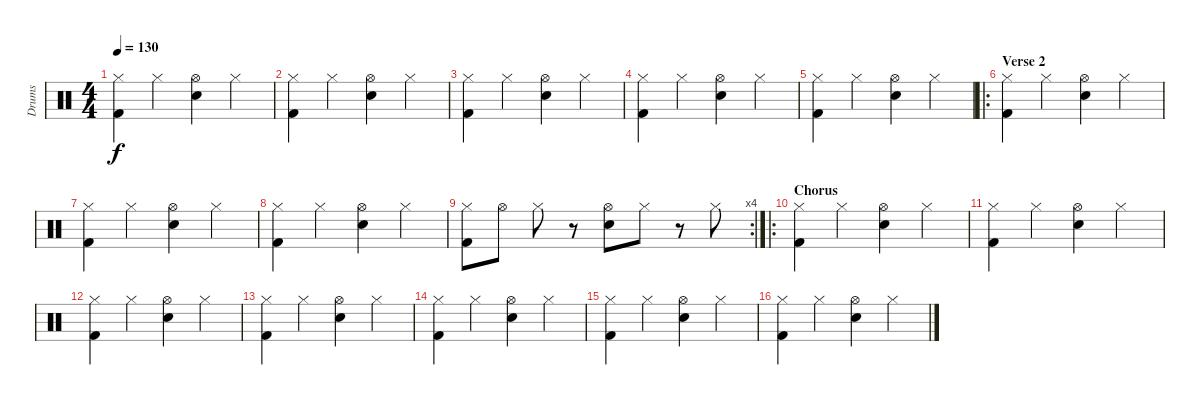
\track ("Drums" "Drums") {instrument percussion}
\staff {score}
\articulation defaults
\ts (4 4)
\tempo 130
\clef neutral
\ks c
("Kick (hit) 2" "Hi-Hat (closed)").4{dy f} "Hi-Hat (closed)".4 ("Hi-Hat (open)" "Snare (hit) 2").4 "Hi-Hat (closed)".4 |
("Kick (hit) 2" "Hi-Hat (closed)").4 "Hi-Hat (closed)".4 ("Hi-Hat (open)" "Snare (hit) 2").4 "Hi-Hat (closed)".4 |
("Kick (hit) 2" "Hi-Hat (closed)").4 "Hi-Hat (closed)".4 ("Hi-Hat (open)" "Snare (hit) 2").4 "Hi-Hat (closed)".4 |
("Kick (hit) 2" "Hi-Hat (closed)").4 "Hi-Hat (closed)".4 ("Hi-Hat (open)" "Snare (hit) 2").4 "Hi-Hat (closed)".4 |
("Kick (hit) 2" "Hi-Hat (closed)").4 "Hi-Hat (closed)".4 ("Hi-Hat (open)" "Snare (hit) 2").4 "Hi-Hat (closed)".4 |
\ro
\section ("" "Verse 2")
("Kick (hit) 2" "Hi-Hat (closed)").4 "Hi-Hat (closed)".4 ("Hi-Hat (open)" "Snare (hit) 2").4 "Hi-Hat (closed)".4 |
("Kick (hit) 2" "Hi-Hat (closed)").4 "Hi-Hat (closed)".4 ("Hi-Hat (open)" "Snare (hit) 2").4 "Hi-Hat (closed)".4 |
("Kick (hit) 2" "Hi-Hat (closed)").4 "Hi-Hat (closed)".4 ("Hi-Hat (open)" "Snare (hit) 2").4 "Hi-Hat (closed)".4 |
\rc 4
("Kick (hit) 2" "Hi-Hat (closed)").8 "Hi-Hat (open)".8 "Hi-Hat (closed)".8 r.8 ("Hi-Hat (open)" "Snare (hit) 2").8 "Hi-Hat (closed)".8 r.8 "Hi-Hat (closed)".8 |
\ro
\section ("" "Chorus")
("Kick (hit) 2" "Hi-Hat (closed)").4 "Hi-Hat (closed)".4 ("Hi-Hat (open)" "Snare (hit) 2").4 "Hi-Hat (closed)".4 |
("Kick (hit) 2" "Hi-Hat (closed)").4 "Hi-Hat (closed)".4 ("Hi-Hat (open)" "Snare (hit) 2").4 "Hi-Hat (closed)".4 |
("Kick (hit) 2" "Hi-Hat (closed)").4 "Hi-Hat (closed)".4 ("Hi-Hat (open)" "Snare (hit) 2").4 "Hi-Hat (closed)".4 |
("Kick (hit) 2" "Hi-Hat (closed)").4 "Hi-Hat (closed)".4 ("Hi-Hat (open)" "Snare (hit) 2").4 "Hi-Hat (closed)".4 |
("Kick (hit) 2" "Hi-Hat (closed)").4 "Hi-Hat (closed)".4 ("Hi-Hat (open)" "Snare (hit) 2").4 "Hi-Hat (closed)".4 |
("Kick (hit) 2" "Hi-Hat (closed)").4 "Hi-Hat (closed)".4 ("Hi-Hat (open)" "Snare (hit) 2").4 "Hi-Hat (closed)".4 |
("Kick (hit) 2" "Hi-Hat (closed)").4 "Hi-Hat (closed)".4 ("Hi-Hat (open)" "Snare (hit) 2").4 "Hi-Hat (closed)".4
